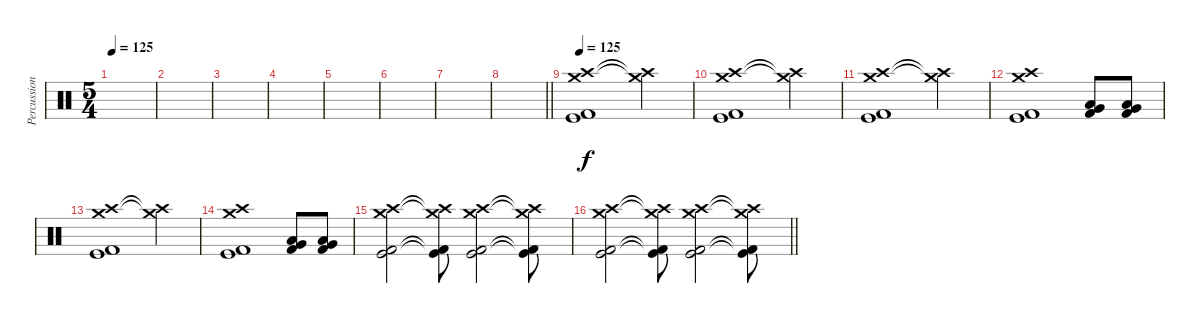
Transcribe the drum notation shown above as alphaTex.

\track ("Percussion" "Percussion") {instrument percussion}
\staff {score}
\articulation defaults
\ts (5 4)
\tempo 125
\tempo 118
\tempo 125
\clef neutral
\ks c
|
|
|
|
|
|
|
\barLineRight lightlight
|
\tempo 125
("Crash high (hit)" "Crash medium (hit)" "Kick (hit) 2" "Kick (hit)").1 ("Crash high (hit)"{t} "Crash medium (hit)"{t}).4 |
("Crash high (hit)" "Crash medium (hit)" "Kick (hit) 2" "Kick (hit)").1 ("Crash high (hit)"{t} "Crash medium (hit)"{t}).4 |
("Crash high (hit)" "Crash medium (hit)" "Kick (hit) 2" "Kick (hit)").1 ("Crash high (hit)"{t} "Crash medium (hit)"{t}).4 |
("Crash high (hit)" "Crash medium (hit)" "Kick (hit) 2" "Kick (hit)").1 ("Very Low Tom (hit)" "Low Tom (hit)" "Kick (hit) 2").8 ("Very Low Tom (hit)" "Low Tom (hit)" "Kick (hit) 2").8 |
("Crash high (hit)" "Crash medium (hit)" "Kick (hit) 2" "Kick (hit)").1 ("Crash high (hit)"{t} "Crash medium (hit)"{t}).4 |
("Crash high (hit)" "Crash medium (hit)" "Kick (hit) 2" "Kick (hit)").1 ("Low Tom (hit)" "Very Low Tom (hit)" "Kick (hit) 2").8 ("Low Tom (hit)" "Very Low Tom (hit)" "Kick (hit) 2").8 |
("Crash high (hit)" "Crash medium (hit)" "Kick (hit) 2" "Kick (hit)").2 ("Crash high (hit)"{t} "Crash medium (hit)"{t} "Kick (hit) 2"{t} "Kick (hit)"{t}).8 ("Crash high (hit)" "Crash medium (hit)" "Kick (hit) 2" "Kick (hit)").2 ("Crash high (hit)"{t} "Crash medium (hit)"{t} "Kick (hit) 2"{t} "Kick (hit)"{t}).8 |
\barLineRight lightlight
("Crash high (hit)" "Crash medium (hit)" "Kick (hit) 2" "Kick (hit)").2 ("Crash high (hit)"{t} "Crash medium (hit)"{t} "Kick (hit) 2"{t} "Kick (hit)"{t}).8 ("Crash high (hit)" "Crash medium (hit)" "Kick (hit) 2" "Kick (hit)").2 ("Crash high (hit)"{t} "Crash medium (hit)"{t} "Kick (hit) 2"{t} "Kick (hit)"{t}).8
